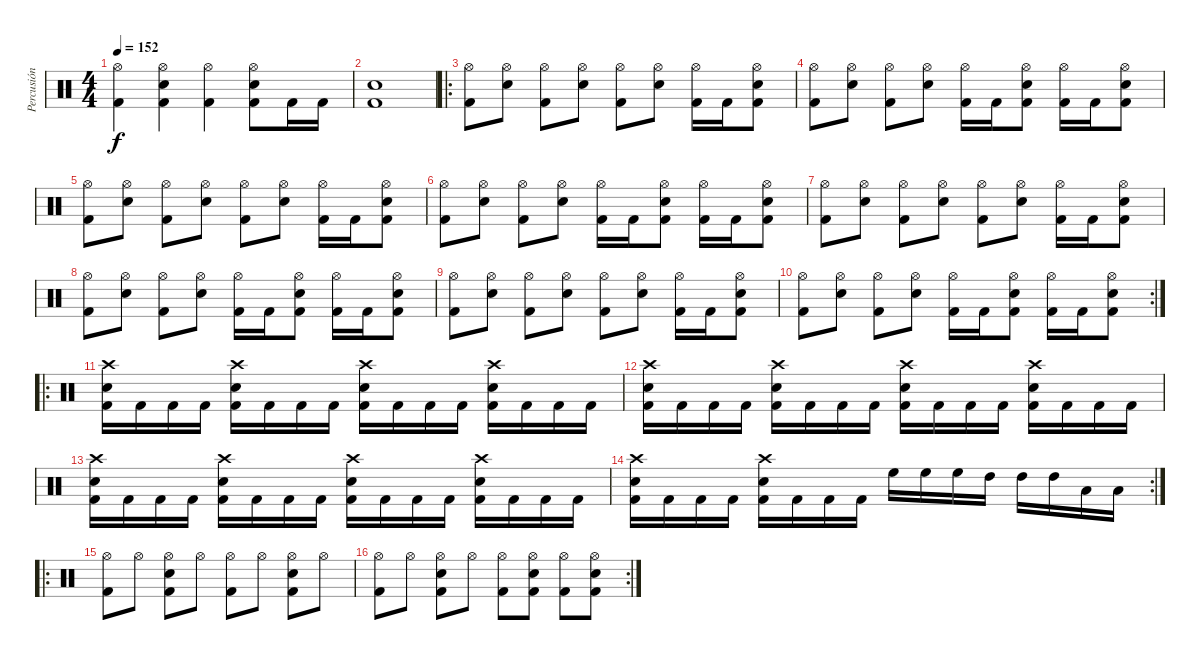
\track ("Percusión" "Percusión") {instrument percussion}
\staff {score}
\articulation defaults
\ts (4 4)
\tempo 152
\clef neutral
\ks c
("Hi-Hat (open)" "Kick (hit) 2").4{dy f} ("Hi-Hat (open)" "Snare (hit) 2" "Kick (hit) 2").4 ("Hi-Hat (open)" "Kick (hit) 2").4 ("Hi-Hat (open)" "Snare (hit) 2" "Kick (hit) 2").8 "Kick (hit) 2".16 "Kick (hit) 2".16 |
("Snare (hit) 2" "Kick (hit) 2").1 |
\ro
("Hi-Hat (open)" "Kick (hit) 2").8 ("Hi-Hat (open)" "Snare (hit) 2").8 ("Hi-Hat (open)" "Kick (hit) 2").8 ("Hi-Hat (open)" "Snare (hit) 2").8 ("Hi-Hat (open)" "Kick (hit) 2").8 ("Hi-Hat (open)" "Snare (hit) 2").8 ("Hi-Hat (open)" "Kick (hit) 2").16 "Kick (hit) 2".16 ("Hi-Hat (open)" "Snare (hit) 2" "Kick (hit) 2").8 |
("Hi-Hat (open)" "Kick (hit) 2").8 ("Hi-Hat (open)" "Snare (hit) 2").8 ("Hi-Hat (open)" "Kick (hit) 2").8 ("Hi-Hat (open)" "Snare (hit) 2").8 ("Hi-Hat (open)" "Kick (hit) 2").16 "Kick (hit) 2".16 ("Hi-Hat (open)" "Snare (hit) 2" "Kick (hit) 2").8 ("Hi-Hat (open)" "Kick (hit) 2").16 "Kick (hit) 2".16 ("Hi-Hat (open)" "Snare (hit) 2" "Kick (hit) 2").8 |
("Hi-Hat (open)" "Kick (hit) 2").8 ("Hi-Hat (open)" "Snare (hit) 2").8 ("Hi-Hat (open)" "Kick (hit) 2").8 ("Hi-Hat (open)" "Snare (hit) 2").8 ("Hi-Hat (open)" "Kick (hit) 2").8 ("Hi-Hat (open)" "Snare (hit) 2").8 ("Hi-Hat (open)" "Kick (hit) 2").16 "Kick (hit) 2".16 ("Hi-Hat (open)" "Snare (hit) 2" "Kick (hit) 2").8 |
("Hi-Hat (open)" "Kick (hit) 2").8 ("Hi-Hat (open)" "Snare (hit) 2").8 ("Hi-Hat (open)" "Kick (hit) 2").8 ("Hi-Hat (open)" "Snare (hit) 2").8 ("Hi-Hat (open)" "Kick (hit) 2").16 "Kick (hit) 2".16 ("Hi-Hat (open)" "Snare (hit) 2" "Kick (hit) 2").8 ("Hi-Hat (open)" "Kick (hit) 2").16 "Kick (hit) 2".16 ("Hi-Hat (open)" "Snare (hit) 2" "Kick (hit) 2").8 |
("Hi-Hat (open)" "Kick (hit) 2").8 ("Hi-Hat (open)" "Snare (hit) 2").8 ("Hi-Hat (open)" "Kick (hit) 2").8 ("Hi-Hat (open)" "Snare (hit) 2").8 ("Hi-Hat (open)" "Kick (hit) 2").8 ("Hi-Hat (open)" "Snare (hit) 2").8 ("Hi-Hat (open)" "Kick (hit) 2").16 "Kick (hit) 2".16 ("Hi-Hat (open)" "Snare (hit) 2" "Kick (hit) 2").8 |
("Hi-Hat (open)" "Kick (hit) 2").8 ("Hi-Hat (open)" "Snare (hit) 2").8 ("Hi-Hat (open)" "Kick (hit) 2").8 ("Hi-Hat (open)" "Snare (hit) 2").8 ("Hi-Hat (open)" "Kick (hit) 2").16 "Kick (hit) 2".16 ("Hi-Hat (open)" "Snare (hit) 2" "Kick (hit) 2").8 ("Hi-Hat (open)" "Kick (hit) 2").16 "Kick (hit) 2".16 ("Hi-Hat (open)" "Snare (hit) 2" "Kick (hit) 2").8 |
("Hi-Hat (open)" "Kick (hit) 2").8 ("Hi-Hat (open)" "Snare (hit) 2").8 ("Hi-Hat (open)" "Kick (hit) 2").8 ("Hi-Hat (open)" "Snare (hit) 2").8 ("Hi-Hat (open)" "Kick (hit) 2").8 ("Hi-Hat (open)" "Snare (hit) 2").8 ("Hi-Hat (open)" "Kick (hit) 2").16 "Kick (hit) 2".16 ("Hi-Hat (open)" "Snare (hit) 2" "Kick (hit) 2").8 |
\rc 2
("Hi-Hat (open)" "Kick (hit) 2").8 ("Hi-Hat (open)" "Snare (hit) 2").8 ("Hi-Hat (open)" "Kick (hit) 2").8 ("Hi-Hat (open)" "Snare (hit) 2").8 ("Hi-Hat (open)" "Kick (hit) 2").16 "Kick (hit) 2".16 ("Hi-Hat (open)" "Snare (hit) 2" "Kick (hit) 2").8 ("Hi-Hat (open)" "Kick (hit) 2").16 "Kick (hit) 2".16 ("Hi-Hat (open)" "Snare (hit) 2" "Kick (hit) 2").8 |
\ro
("Crash high (hit)" "Snare (hit) 2" "Kick (hit) 2").16 "Kick (hit) 2".16 "Kick (hit) 2".16 "Kick (hit) 2".16 ("Crash high (hit)" "Snare (hit) 2" "Kick (hit) 2").16 "Kick (hit) 2".16 "Kick (hit) 2".16 "Kick (hit) 2".16 ("Crash high (hit)" "Snare (hit) 2" "Kick (hit) 2").16 "Kick (hit) 2".16 "Kick (hit) 2".16 "Kick (hit) 2".16 ("Crash high (hit)" "Snare (hit) 2" "Kick (hit) 2").16 "Kick (hit) 2".16 "Kick (hit) 2".16 "Kick (hit) 2".16 |
("Crash high (hit)" "Snare (hit) 2" "Kick (hit) 2").16 "Kick (hit) 2".16 "Kick (hit) 2".16 "Kick (hit) 2".16 ("Crash high (hit)" "Snare (hit) 2" "Kick (hit) 2").16 "Kick (hit) 2".16 "Kick (hit) 2".16 "Kick (hit) 2".16 ("Crash high (hit)" "Snare (hit) 2" "Kick (hit) 2").16 "Kick (hit) 2".16 "Kick (hit) 2".16 "Kick (hit) 2".16 ("Crash high (hit)" "Snare (hit) 2" "Kick (hit) 2").16 "Kick (hit) 2".16 "Kick (hit) 2".16 "Kick (hit) 2".16 |
("Crash high (hit)" "Snare (hit) 2" "Kick (hit) 2").16 "Kick (hit) 2".16 "Kick (hit) 2".16 "Kick (hit) 2".16 ("Crash high (hit)" "Snare (hit) 2" "Kick (hit) 2").16 "Kick (hit) 2".16 "Kick (hit) 2".16 "Kick (hit) 2".16 ("Crash high (hit)" "Snare (hit) 2" "Kick (hit) 2").16 "Kick (hit) 2".16 "Kick (hit) 2".16 "Kick (hit) 2".16 ("Crash high (hit)" "Snare (hit) 2" "Kick (hit) 2").16 "Kick (hit) 2".16 "Kick (hit) 2".16 "Kick (hit) 2".16 |
\rc 2
("Crash high (hit)" "Snare (hit) 2" "Kick (hit) 2").16 "Kick (hit) 2".16 "Kick (hit) 2".16 "Kick (hit) 2".16 ("Crash high (hit)" "Snare (hit) 2" "Kick (hit) 2").16 "Kick (hit) 2".16 "Kick (hit) 2".16 "Kick (hit) 2".16 "High Floor Tom (hit)".16 "High Floor Tom (hit)".16 "High Floor Tom (hit)".16 "High Tom (hit)".16 "High Tom (hit)".16 "High Tom (hit)".16 "Low Floor Tom (hit)".16 "Low Floor Tom (hit)".16 |
\ro
("Hi-Hat (open)" "Kick (hit) 2").8 "Hi-Hat (open)".8 ("Hi-Hat (open)" "Snare (hit) 2" "Kick (hit) 2").8 "Hi-Hat (open)".8 ("Hi-Hat (open)" "Kick (hit) 2").8 "Hi-Hat (open)".8 ("Hi-Hat (open)" "Snare (hit) 2" "Kick (hit) 2").8 "Hi-Hat (open)".8 |
\rc 2
("Hi-Hat (open)" "Kick (hit) 2").8 "Hi-Hat (open)".8 ("Hi-Hat (open)" "Snare (hit) 2" "Kick (hit) 2").8 "Hi-Hat (open)".8 ("Hi-Hat (open)" "Kick (hit) 2").8 ("Hi-Hat (open)" "Snare (hit) 2" "Kick (hit) 2").8 ("Hi-Hat (open)" "Kick (hit) 2").8 ("Hi-Hat (open)" "Snare (hit) 2" "Kick (hit) 2").8
